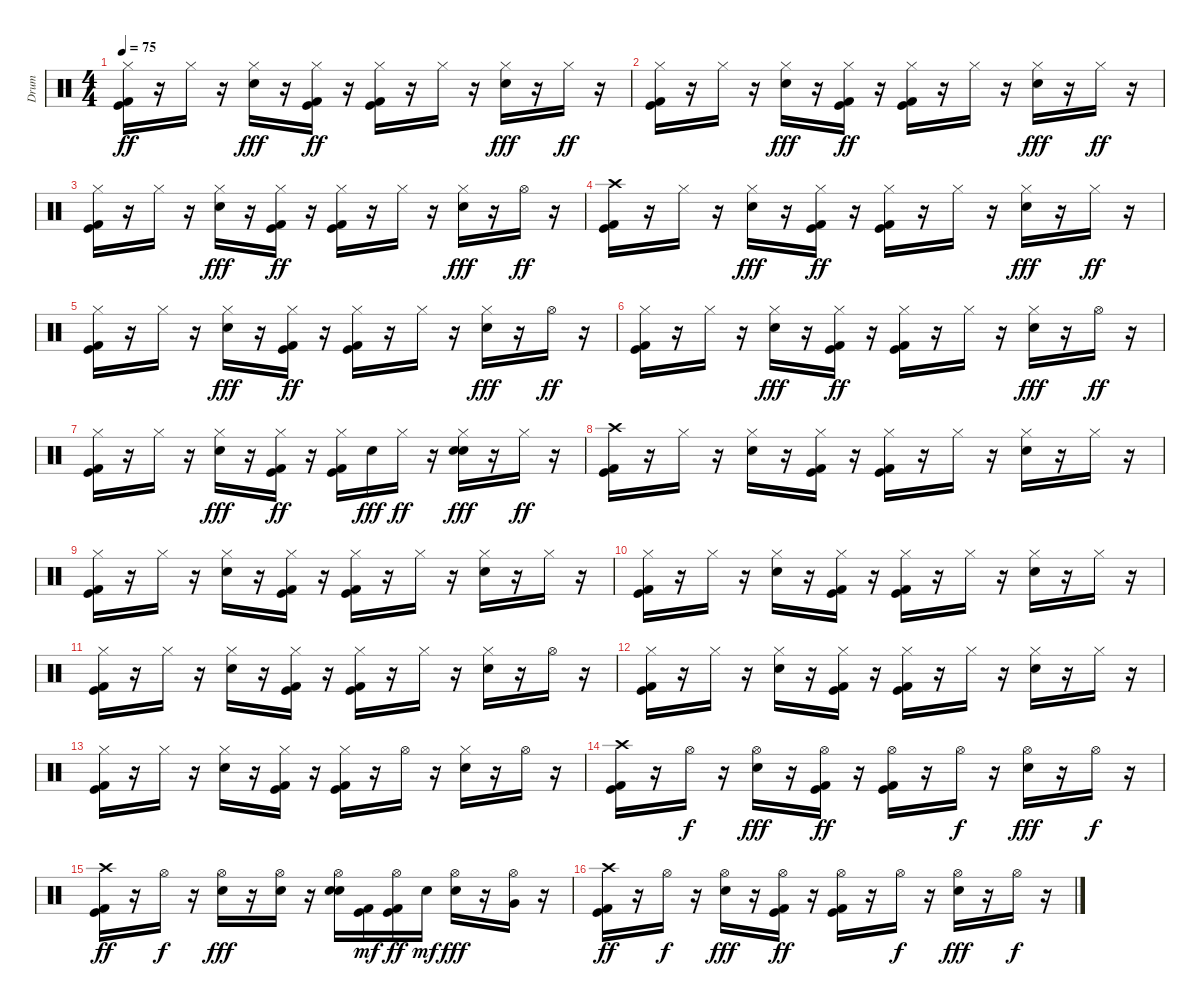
\track ("Drum" "Drum") {instrument percussion}
\staff {score}
\articulation defaults
\ts (4 4)
\tempo 75
\clef neutral
\ks c
("Kick (hit)" "Kick (hit) 2" "Hi-Hat (closed)").16{dy ff} r.16 "Hi-Hat (closed)".16 r.16 ("Hi-Hat (closed)" "Electric Snare (hit)").16{dy fff} r.16 ("Kick (hit)" "Kick (hit) 2" "Hi-Hat (closed)").16{dy ff} r.16 ("Kick (hit)" "Kick (hit) 2" "Hi-Hat (closed)").16 r.16 "Hi-Hat (closed)".16 r.16 ("Hi-Hat (closed)" "Electric Snare (hit)").16{dy fff} r.16 "Hi-Hat (closed)".16{dy ff} r.16 |
("Kick (hit)" "Kick (hit) 2" "Hi-Hat (closed)").16 r.16 "Hi-Hat (closed)".16 r.16 ("Hi-Hat (closed)" "Electric Snare (hit)").16{dy fff} r.16 ("Kick (hit)" "Kick (hit) 2" "Hi-Hat (closed)").16{dy ff} r.16 ("Kick (hit)" "Kick (hit) 2" "Hi-Hat (closed)").16 r.16 "Hi-Hat (closed)".16 r.16 ("Hi-Hat (closed)" "Electric Snare (hit)").16{dy fff} r.16 "Hi-Hat (closed)".16{dy ff} r.16 |
("Kick (hit)" "Kick (hit) 2" "Hi-Hat (closed)").16 r.16 "Hi-Hat (closed)".16 r.16 ("Hi-Hat (closed)" "Electric Snare (hit)").16{dy fff} r.16 ("Kick (hit)" "Kick (hit) 2" "Hi-Hat (closed)").16{dy ff} r.16 ("Kick (hit)" "Kick (hit) 2" "Hi-Hat (closed)").16 r.16 "Hi-Hat (closed)".16 r.16 ("Hi-Hat (closed)" "Electric Snare (hit)").16{dy fff} r.16 "Hi-Hat (open)".16{dy ff} r.16 |
("Crash high (hit)" "Kick (hit)" "Kick (hit) 2").16 r.16 "Hi-Hat (closed)".16 r.16 ("Hi-Hat (closed)" "Electric Snare (hit)").16{dy fff} r.16 ("Kick (hit)" "Kick (hit) 2" "Hi-Hat (closed)").16{dy ff} r.16 ("Kick (hit)" "Kick (hit) 2" "Hi-Hat (closed)").16 r.16 "Hi-Hat (closed)".16 r.16 ("Hi-Hat (closed)" "Electric Snare (hit)").16{dy fff} r.16 "Hi-Hat (closed)".16{dy ff} r.16 |
("Kick (hit)" "Kick (hit) 2" "Hi-Hat (closed)").16 r.16 "Hi-Hat (closed)".16 r.16 ("Hi-Hat (closed)" "Electric Snare (hit)").16{dy fff} r.16 ("Kick (hit)" "Kick (hit) 2" "Hi-Hat (closed)").16{dy ff} r.16 ("Kick (hit)" "Kick (hit) 2" "Hi-Hat (closed)").16 r.16 "Hi-Hat (closed)".16 r.16 ("Hi-Hat (closed)" "Electric Snare (hit)").16{dy fff} r.16 "Hi-Hat (open)".16{dy ff} r.16 |
("Kick (hit)" "Kick (hit) 2" "Hi-Hat (closed)").16 r.16 "Hi-Hat (closed)".16 r.16 ("Hi-Hat (closed)" "Electric Snare (hit)").16{dy fff} r.16 ("Kick (hit)" "Kick (hit) 2" "Hi-Hat (closed)").16{dy ff} r.16 ("Kick (hit)" "Kick (hit) 2" "Hi-Hat (closed)").16 r.16 "Hi-Hat (closed)".16 r.16 ("Hi-Hat (closed)" "Electric Snare (hit)").16{dy fff} r.16 "Hi-Hat (open)".16{dy ff} r.16 |
("Kick (hit)" "Kick (hit) 2" "Hi-Hat (closed)").16 r.16 "Hi-Hat (closed)".16 r.16 ("Hi-Hat (closed)" "Electric Snare (hit)").16{dy fff} r.16 ("Kick (hit)" "Kick (hit) 2" "Hi-Hat (closed)").16{dy ff} r.16 ("Kick (hit)" "Kick (hit) 2" "Hi-Hat (closed)").16 "Electric Snare (hit)".16{dy fff} "Hi-Hat (closed)".16{dy ff} r.16 ("Electric Snare (hit)" "Hi-Hat (closed)" "Electric Snare (hit)").16{dy fff} r.16 "Hi-Hat (closed)".16{dy ff} r.16 |
("Crash high (hit)" "Kick (hit)" "Kick (hit) 2").16 r.16 "Hi-Hat (closed)".16 r.16 ("Electric Snare (hit)" "Hi-Hat (closed)").16 r.16 ("Kick (hit)" "Kick (hit) 2" "Hi-Hat (closed)").16 r.16 ("Kick (hit)" "Kick (hit) 2" "Hi-Hat (closed)").16 r.16 "Hi-Hat (closed)".16 r.16 ("Electric Snare (hit)" "Hi-Hat (closed)").16 r.16 "Hi-Hat (closed)".16 r.16 |
("Kick (hit) 2" "Kick (hit)" "Hi-Hat (closed)").16 r.16 "Hi-Hat (closed)".16 r.16 ("Electric Snare (hit)" "Hi-Hat (closed)").16 r.16 ("Kick (hit) 2" "Kick (hit)" "Hi-Hat (closed)").16 r.16 ("Kick (hit) 2" "Kick (hit)" "Hi-Hat (closed)").16 r.16 "Hi-Hat (closed)".16 r.16 ("Electric Snare (hit)" "Hi-Hat (closed)").16 r.16 "Hi-Hat (closed)".16 r.16 |
("Kick (hit)" "Kick (hit) 2" "Hi-Hat (closed)").16 r.16 "Hi-Hat (closed)".16 r.16 ("Electric Snare (hit)" "Hi-Hat (closed)").16 r.16 ("Kick (hit)" "Kick (hit) 2" "Hi-Hat (closed)").16 r.16 ("Kick (hit)" "Kick (hit) 2" "Hi-Hat (closed)").16 r.16 "Hi-Hat (closed)".16 r.16 ("Electric Snare (hit)" "Hi-Hat (closed)").16 r.16 "Hi-Hat (closed)".16 r.16 |
("Kick (hit) 2" "Kick (hit)" "Hi-Hat (closed)").16 r.16 "Hi-Hat (closed)".16 r.16 ("Electric Snare (hit)" "Hi-Hat (closed)").16 r.16 ("Kick (hit) 2" "Kick (hit)" "Hi-Hat (closed)").16 r.16 ("Kick (hit) 2" "Kick (hit)" "Hi-Hat (closed)").16 r.16 "Hi-Hat (closed)".16 r.16 ("Electric Snare (hit)" "Hi-Hat (closed)").16 r.16 "Hi-Hat (open)".16 r.16 |
("Kick (hit)" "Kick (hit) 2" "Hi-Hat (closed)").16 r.16 "Hi-Hat (closed)".16 r.16 ("Electric Snare (hit)" "Hi-Hat (closed)").16 r.16 ("Kick (hit)" "Kick (hit) 2" "Hi-Hat (closed)").16 r.16 ("Kick (hit)" "Kick (hit) 2" "Hi-Hat (closed)").16 r.16 "Hi-Hat (closed)".16 r.16 ("Electric Snare (hit)" "Hi-Hat (closed)").16 r.16 "Hi-Hat (closed)".16 r.16 |
("Kick (hit) 2" "Kick (hit)" "Hi-Hat (closed)").16 r.16 "Hi-Hat (closed)".16 r.16 ("Electric Snare (hit)" "Hi-Hat (closed)").16 r.16 ("Kick (hit) 2" "Kick (hit)" "Hi-Hat (closed)").16 r.16 ("Kick (hit) 2" "Kick (hit)" "Hi-Hat (closed)").16 r.16 "Hi-Hat (open)".16 r.16 ("Electric Snare (hit)" "Hi-Hat (closed)").16 r.16 "Hi-Hat (open)".16 r.16 |
("Crash high (hit)" "Kick (hit)" "Kick (hit) 2").16 r.16 "Hi-Hat (open)".16{dy f} r.16 ("Electric Snare (hit)" "Hi-Hat (open)").16{dy fff} r.16 ("Kick (hit)" "Kick (hit) 2" "Hi-Hat (open)").16{dy ff} r.16 ("Kick (hit)" "Kick (hit) 2" "Hi-Hat (open)").16 r.16 "Hi-Hat (open)".16{dy f} r.16 ("Electric Snare (hit)" "Hi-Hat (open)").16{dy fff} r.16 "Hi-Hat (open)".16{dy f} r.16 |
("Kick (hit) 2" "Kick (hit)" "Crash high (hit)").16{dy ff} r.16 "Hi-Hat (open)".16{dy f} r.16 ("Electric Snare (hit)" "Hi-Hat (open)").16{dy fff} r.16 ("Hi-Hat (open)" "Electric Snare (hit)").16 r.16 ("Hi-Hat (open)" "Electric Snare (hit)" "Electric Snare (hit)").16 ("Kick (hit)" "Kick (hit) 2").16{dy mf} ("Kick (hit)" "Kick (hit) 2" "Hi-Hat (open)").16{dy ff} "Electric Snare (hit)".16{dy mf} ("Electric Snare (hit)" "Hi-Hat (open)").16{dy fff} r.16 ("Hi-Hat (open)" "Very Low Tom (hit)").16 r.16 |
("Kick (hit)" "Kick (hit) 2" "Crash high (hit)").16{dy ff} r.16 "Hi-Hat (open)".16{dy f} r.16 ("Electric Snare (hit)" "Hi-Hat (open)").16{dy fff} r.16 ("Kick (hit)" "Kick (hit) 2" "Hi-Hat (open)").16{dy ff} r.16 ("Kick (hit)" "Kick (hit) 2" "Hi-Hat (open)").16 r.16 "Hi-Hat (open)".16{dy f} r.16 ("Electric Snare (hit)" "Hi-Hat (open)").16{dy fff} r.16 "Hi-Hat (open)".16{dy f} r.16
